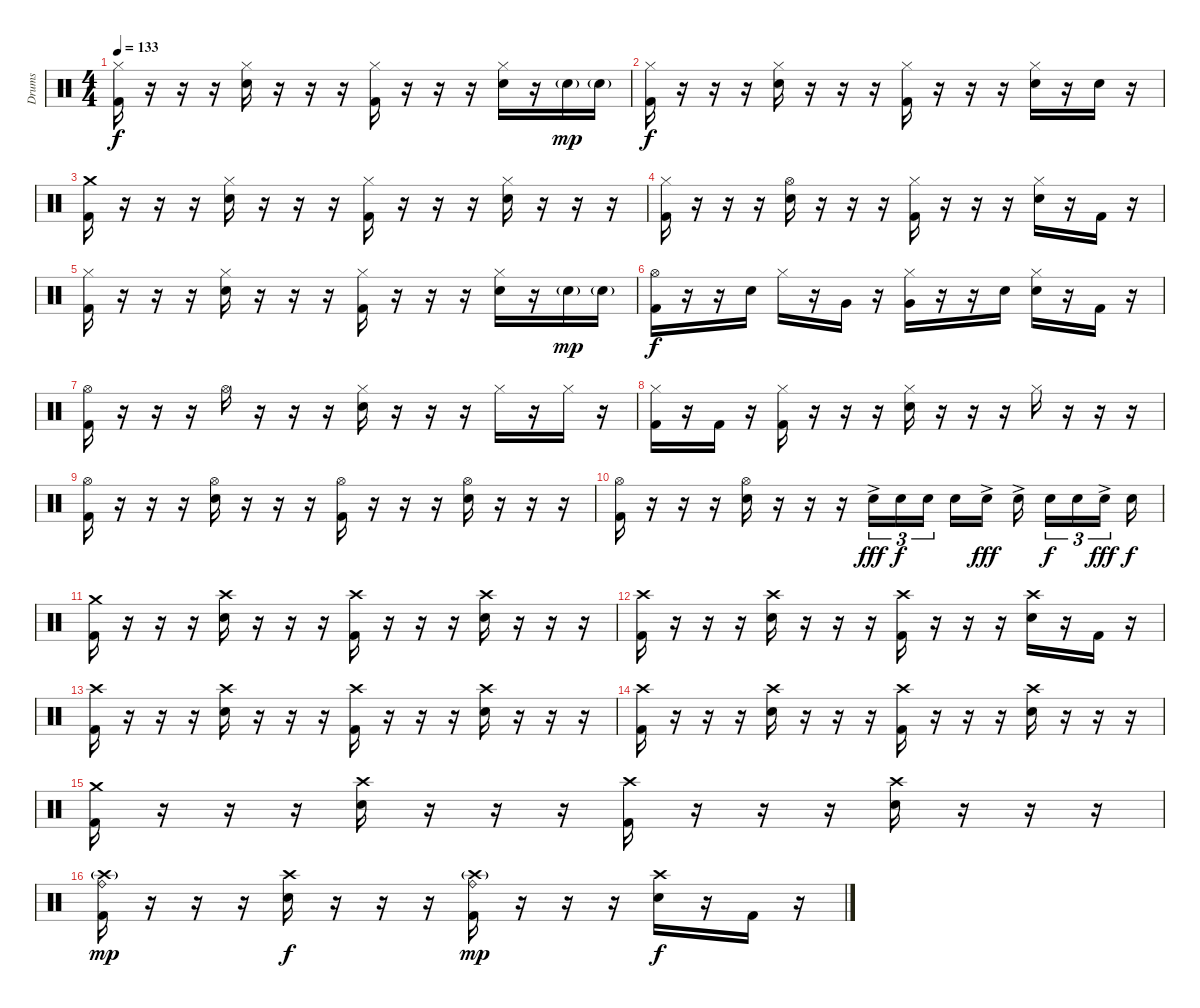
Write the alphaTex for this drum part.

\track ("Drums" "Drums") {instrument percussion}
\staff {score}
\articulation defaults
\ts (4 4)
\tempo 133
\clef neutral
\ks c
("Hi-Hat (closed)" "Kick (hit) 2").16{dy f} r.16 r.16 r.16 ("Hi-Hat (closed)" "Snare (hit) 2").16 r.16 r.16 r.16 ("Hi-Hat (closed)" "Kick (hit) 2").16 r.16 r.16 r.16 ("Hi-Hat (closed)" "Snare (hit) 2").16 r.16 "Snare (hit) 2"{g}.16{dy mp} "Snare (hit) 2"{g}.16 |
("Hi-Hat (closed)" "Kick (hit) 2").16{dy f} r.16 r.16 r.16 ("Hi-Hat (closed)" "Snare (hit) 2").16 r.16 r.16 r.16 ("Hi-Hat (closed)" "Kick (hit) 2").16 r.16 r.16 r.16 ("Hi-Hat (closed)" "Snare (hit) 2").16 r.16 "Snare (hit) 2".16 r.16 |
("Crash medium (hit)" "Kick (hit) 2").16 r.16 r.16 r.16 ("Hi-Hat (closed)" "Snare (hit) 2").16 r.16 r.16 r.16 ("Hi-Hat (closed)" "Kick (hit) 2").16 r.16 r.16 r.16 ("Hi-Hat (closed)" "Snare (hit) 2").16 r.16 r.16 r.16 |
("Hi-Hat (closed)" "Kick (hit) 2").16 r.16 r.16 r.16 ("Hi-Hat (open)" "Snare (hit) 2").16 r.16 r.16 r.16 ("Hi-Hat (closed)" "Kick (hit) 2").16 r.16 r.16 r.16 ("Hi-Hat (closed)" "Snare (hit) 2").16 r.16 "Kick (hit) 2".16 r.16 |
("Hi-Hat (closed)" "Kick (hit) 2").16 r.16 r.16 r.16 ("Hi-Hat (closed)" "Snare (hit) 2").16 r.16 r.16 r.16 ("Hi-Hat (closed)" "Kick (hit) 2").16 r.16 r.16 r.16 ("Hi-Hat (closed)" "Snare (hit) 2").16 r.16 "Snare (hit) 2"{g}.16{dy mp} "Snare (hit) 2"{g}.16 |
("Hi-Hat (open)" "Kick (hit) 2").16{dy f} r.16 r.16 "Snare (hit) 2".16 "Hi-Hat (closed)".16 r.16 "Very Low Tom (hit)".16 r.16 ("Hi-Hat (closed)" "Very Low Tom (hit)").16 r.16 r.16 "Snare (hit) 2".16 ("Hi-Hat (closed)" "Snare (hit) 2").16 r.16 "Kick (hit) 2".16 r.16 |
("Hi-Hat (open)" "Kick (hit) 2").16 r.16 r.16 r.16 "Hi-Hat (open)".16 r.16 r.16 r.16 ("Hi-Hat (closed)" "Snare (hit) 2").16 r.16 r.16 r.16 "Hi-Hat (closed)".16 r.16 "Hi-Hat (closed)".16 r.16 |
("Hi-Hat (closed)" "Kick (hit) 2").16 r.16 "Kick (hit) 2".16 r.16 ("Hi-Hat (closed)" "Kick (hit) 2").16 r.16 r.16 r.16 ("Hi-Hat (closed)" "Snare (hit) 2").16 r.16 r.16 r.16 "Hi-Hat (closed)".16 r.16 r.16 r.16 |
("Hi-Hat (open)" "Kick (hit) 2").16 r.16 r.16 r.16 ("Hi-Hat (open)" "Snare (hit) 2").16 r.16 r.16 r.16 ("Hi-Hat (open)" "Kick (hit) 2").16 r.16 r.16 r.16 ("Hi-Hat (open)" "Snare (hit) 2").16 r.16 r.16 r.16 |
("Hi-Hat (open)" "Kick (hit) 2").16 r.16 r.16 r.16 ("Hi-Hat (open)" "Snare (hit) 2").16 r.16 r.16 r.16 "Snare (hit) 2"{ac}.16{tu (3 2) dy fff} "Snare (hit) 2".16{tu (3 2) dy f} "Snare (hit) 2".16{tu (3 2)} "Snare (hit) 2".16 "Snare (hit) 2"{ac}.16{dy fff} "Snare (hit) 2"{ac}.16 "Snare (hit) 2".16{tu (3 2) dy f} "Snare (hit) 2".16{tu (3 2)} "Snare (hit) 2"{ac}.16{tu (3 2) dy fff} "Snare (hit) 2".16{dy f} |
("Crash medium (hit)" "Kick (hit) 2").16 r.16 r.16 r.16 ("Crash high (hit)" "Snare (hit) 2").16 r.16 r.16 r.16 ("Crash high (hit)" "Kick (hit) 2").16 r.16 r.16 r.16 ("Crash high (hit)" "Snare (hit) 2").16 r.16 r.16 r.16 |
("Crash high (hit)" "Kick (hit) 2").16 r.16 r.16 r.16 ("Crash high (hit)" "Snare (hit) 2").16 r.16 r.16 r.16 ("Crash high (hit)" "Kick (hit) 2").16 r.16 r.16 r.16 ("Crash high (hit)" "Snare (hit) 2").16 r.16 "Kick (hit) 2".16 r.16 |
("Crash high (hit)" "Kick (hit) 2").16 r.16 r.16 r.16 ("Crash high (hit)" "Snare (hit) 2").16 r.16 r.16 r.16 ("Crash high (hit)" "Kick (hit) 2").16 r.16 r.16 r.16 ("Crash high (hit)" "Snare (hit) 2").16 r.16 r.16 r.16 |
("Crash high (hit)" "Kick (hit) 2").16 r.16 r.16 r.16 ("Crash high (hit)" "Snare (hit) 2").16 r.16 r.16 r.16 ("Crash high (hit)" "Kick (hit) 2").16 r.16 r.16 r.16 ("Crash high (hit)" "Snare (hit) 2").16 r.16 r.16 r.16 |
("Crash medium (hit)" "Kick (hit) 2").16 r.16 r.16 r.16 ("Crash high (hit)" "Snare (hit) 2").16 r.16 r.16 r.16 ("Crash high (hit)" "Kick (hit) 2").16 r.16 r.16 r.16 ("Crash high (hit)" "Snare (hit) 2").16 r.16 r.16 r.16 |
("Crash high (hit)"{g} "Ride (bell)" "Kick (hit) 2").16{dy mp} r.16 r.16 r.16 ("Crash high (hit)" "Snare (hit) 2").16{dy f} r.16 r.16 r.16 ("Crash high (hit)"{g} "Ride (bell)" "Kick (hit) 2").16{dy mp} r.16 r.16 r.16 ("Crash high (hit)" "Snare (hit) 2").16{dy f} r.16 "Kick (hit) 2".16 r.16
